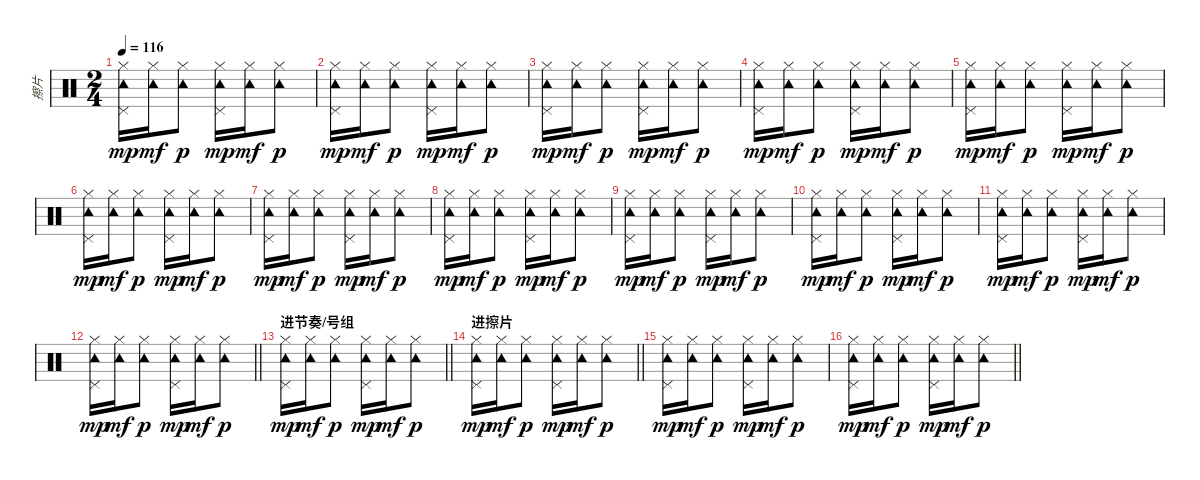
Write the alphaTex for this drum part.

\track ("擦片" "擦片") {instrument percussion}
\staff {score}
\articulation defaults
\ts (2 4)
\tempo 116
\clef neutral
\ks c
("Hi-Hat (closed)" "Tambourine (hit)" "Pedal Hi-Hat (hit)").16{dy mp} ("Hi-Hat (closed)" "Tambourine (hit)").16{dy mf} ("Hi-Hat (closed)" "Tambourine (hit)").8{dy p} ("Hi-Hat (closed)" "Tambourine (hit)" "Pedal Hi-Hat (hit)").16{dy mp} ("Hi-Hat (closed)" "Tambourine (hit)").16{dy mf} ("Hi-Hat (closed)" "Tambourine (hit)").8{dy p} |
("Hi-Hat (closed)" "Tambourine (hit)" "Pedal Hi-Hat (hit)").16{dy mp} ("Hi-Hat (closed)" "Tambourine (hit)").16{dy mf} ("Hi-Hat (closed)" "Tambourine (hit)").8{dy p} ("Hi-Hat (closed)" "Tambourine (hit)" "Pedal Hi-Hat (hit)").16{dy mp} ("Hi-Hat (closed)" "Tambourine (hit)").16{dy mf} ("Hi-Hat (closed)" "Tambourine (hit)").8{dy p} |
("Hi-Hat (closed)" "Tambourine (hit)" "Pedal Hi-Hat (hit)").16{dy mp} ("Hi-Hat (closed)" "Tambourine (hit)").16{dy mf} ("Hi-Hat (closed)" "Tambourine (hit)").8{dy p} ("Hi-Hat (closed)" "Tambourine (hit)" "Pedal Hi-Hat (hit)").16{dy mp} ("Hi-Hat (closed)" "Tambourine (hit)").16{dy mf} ("Hi-Hat (closed)" "Tambourine (hit)").8{dy p} |
("Hi-Hat (closed)" "Tambourine (hit)" "Pedal Hi-Hat (hit)").16{dy mp} ("Hi-Hat (closed)" "Tambourine (hit)").16{dy mf} ("Hi-Hat (closed)" "Tambourine (hit)").8{dy p} ("Hi-Hat (closed)" "Tambourine (hit)" "Pedal Hi-Hat (hit)").16{dy mp} ("Hi-Hat (closed)" "Tambourine (hit)").16{dy mf} ("Hi-Hat (closed)" "Tambourine (hit)").8{dy p} |
("Hi-Hat (closed)" "Tambourine (hit)" "Pedal Hi-Hat (hit)").16{dy mp} ("Hi-Hat (closed)" "Tambourine (hit)").16{dy mf} ("Hi-Hat (closed)" "Tambourine (hit)").8{dy p} ("Hi-Hat (closed)" "Tambourine (hit)" "Pedal Hi-Hat (hit)").16{dy mp} ("Hi-Hat (closed)" "Tambourine (hit)").16{dy mf} ("Hi-Hat (closed)" "Tambourine (hit)").8{dy p} |
("Hi-Hat (closed)" "Tambourine (hit)" "Pedal Hi-Hat (hit)").16{dy mp} ("Hi-Hat (closed)" "Tambourine (hit)").16{dy mf} ("Hi-Hat (closed)" "Tambourine (hit)").8{dy p} ("Hi-Hat (closed)" "Tambourine (hit)" "Pedal Hi-Hat (hit)").16{dy mp} ("Hi-Hat (closed)" "Tambourine (hit)").16{dy mf} ("Hi-Hat (closed)" "Tambourine (hit)").8{dy p} |
("Hi-Hat (closed)" "Tambourine (hit)" "Pedal Hi-Hat (hit)").16{dy mp} ("Hi-Hat (closed)" "Tambourine (hit)").16{dy mf} ("Hi-Hat (closed)" "Tambourine (hit)").8{dy p} ("Hi-Hat (closed)" "Tambourine (hit)" "Pedal Hi-Hat (hit)").16{dy mp} ("Hi-Hat (closed)" "Tambourine (hit)").16{dy mf} ("Hi-Hat (closed)" "Tambourine (hit)").8{dy p} |
("Hi-Hat (closed)" "Tambourine (hit)" "Pedal Hi-Hat (hit)").16{dy mp} ("Hi-Hat (closed)" "Tambourine (hit)").16{dy mf} ("Hi-Hat (closed)" "Tambourine (hit)").8{dy p} ("Hi-Hat (closed)" "Tambourine (hit)" "Pedal Hi-Hat (hit)").16{dy mp} ("Hi-Hat (closed)" "Tambourine (hit)").16{dy mf} ("Hi-Hat (closed)" "Tambourine (hit)").8{dy p} |
("Hi-Hat (closed)" "Tambourine (hit)" "Pedal Hi-Hat (hit)").16{dy mp} ("Hi-Hat (closed)" "Tambourine (hit)").16{dy mf} ("Hi-Hat (closed)" "Tambourine (hit)").8{dy p} ("Hi-Hat (closed)" "Tambourine (hit)" "Pedal Hi-Hat (hit)").16{dy mp} ("Hi-Hat (closed)" "Tambourine (hit)").16{dy mf} ("Hi-Hat (closed)" "Tambourine (hit)").8{dy p} |
("Hi-Hat (closed)" "Tambourine (hit)" "Pedal Hi-Hat (hit)").16{dy mp} ("Hi-Hat (closed)" "Tambourine (hit)").16{dy mf} ("Hi-Hat (closed)" "Tambourine (hit)").8{dy p} ("Hi-Hat (closed)" "Tambourine (hit)" "Pedal Hi-Hat (hit)").16{dy mp} ("Hi-Hat (closed)" "Tambourine (hit)").16{dy mf} ("Hi-Hat (closed)" "Tambourine (hit)").8{dy p} |
("Hi-Hat (closed)" "Tambourine (hit)" "Pedal Hi-Hat (hit)").16{dy mp} ("Hi-Hat (closed)" "Tambourine (hit)").16{dy mf} ("Hi-Hat (closed)" "Tambourine (hit)").8{dy p} ("Hi-Hat (closed)" "Tambourine (hit)" "Pedal Hi-Hat (hit)").16{dy mp} ("Hi-Hat (closed)" "Tambourine (hit)").16{dy mf} ("Hi-Hat (closed)" "Tambourine (hit)").8{dy p} |
\barLineRight lightlight
("Hi-Hat (closed)" "Tambourine (hit)" "Pedal Hi-Hat (hit)").16{dy mp} ("Hi-Hat (closed)" "Tambourine (hit)").16{dy mf} ("Hi-Hat (closed)" "Tambourine (hit)").8{dy p} ("Hi-Hat (closed)" "Tambourine (hit)" "Pedal Hi-Hat (hit)").16{dy mp} ("Hi-Hat (closed)" "Tambourine (hit)").16{dy mf} ("Hi-Hat (closed)" "Tambourine (hit)").8{dy p} |
\section ("" "进节奏/号组")
\barLineRight lightlight
("Hi-Hat (closed)" "Tambourine (hit)" "Pedal Hi-Hat (hit)").16{dy mp} ("Hi-Hat (closed)" "Tambourine (hit)").16{dy mf} ("Hi-Hat (closed)" "Tambourine (hit)").8{dy p} ("Hi-Hat (closed)" "Tambourine (hit)" "Pedal Hi-Hat (hit)").16{dy mp} ("Hi-Hat (closed)" "Tambourine (hit)").16{dy mf} ("Hi-Hat (closed)" "Tambourine (hit)").8{dy p} |
\section ("" "进擦片")
\barLineRight lightlight
("Hi-Hat (closed)" "Tambourine (hit)" "Pedal Hi-Hat (hit)").16{dy mp} ("Hi-Hat (closed)" "Tambourine (hit)").16{dy mf} ("Hi-Hat (closed)" "Tambourine (hit)").8{dy p} ("Hi-Hat (closed)" "Tambourine (hit)" "Pedal Hi-Hat (hit)").16{dy mp} ("Hi-Hat (closed)" "Tambourine (hit)").16{dy mf} ("Hi-Hat (closed)" "Tambourine (hit)").8{dy p} |
("Hi-Hat (closed)" "Tambourine (hit)" "Pedal Hi-Hat (hit)").16{dy mp} ("Hi-Hat (closed)" "Tambourine (hit)").16{dy mf} ("Hi-Hat (closed)" "Tambourine (hit)").8{dy p} ("Hi-Hat (closed)" "Tambourine (hit)" "Pedal Hi-Hat (hit)").16{dy mp} ("Hi-Hat (closed)" "Tambourine (hit)").16{dy mf} ("Hi-Hat (closed)" "Tambourine (hit)").8{dy p} |
\barLineRight lightlight
("Hi-Hat (closed)" "Tambourine (hit)" "Pedal Hi-Hat (hit)").16{dy mp} ("Hi-Hat (closed)" "Tambourine (hit)").16{dy mf} ("Hi-Hat (closed)" "Tambourine (hit)").8{dy p} ("Hi-Hat (closed)" "Tambourine (hit)" "Pedal Hi-Hat (hit)").16{dy mp} ("Hi-Hat (closed)" "Tambourine (hit)").16{dy mf} ("Hi-Hat (closed)" "Tambourine (hit)").8{dy p}
